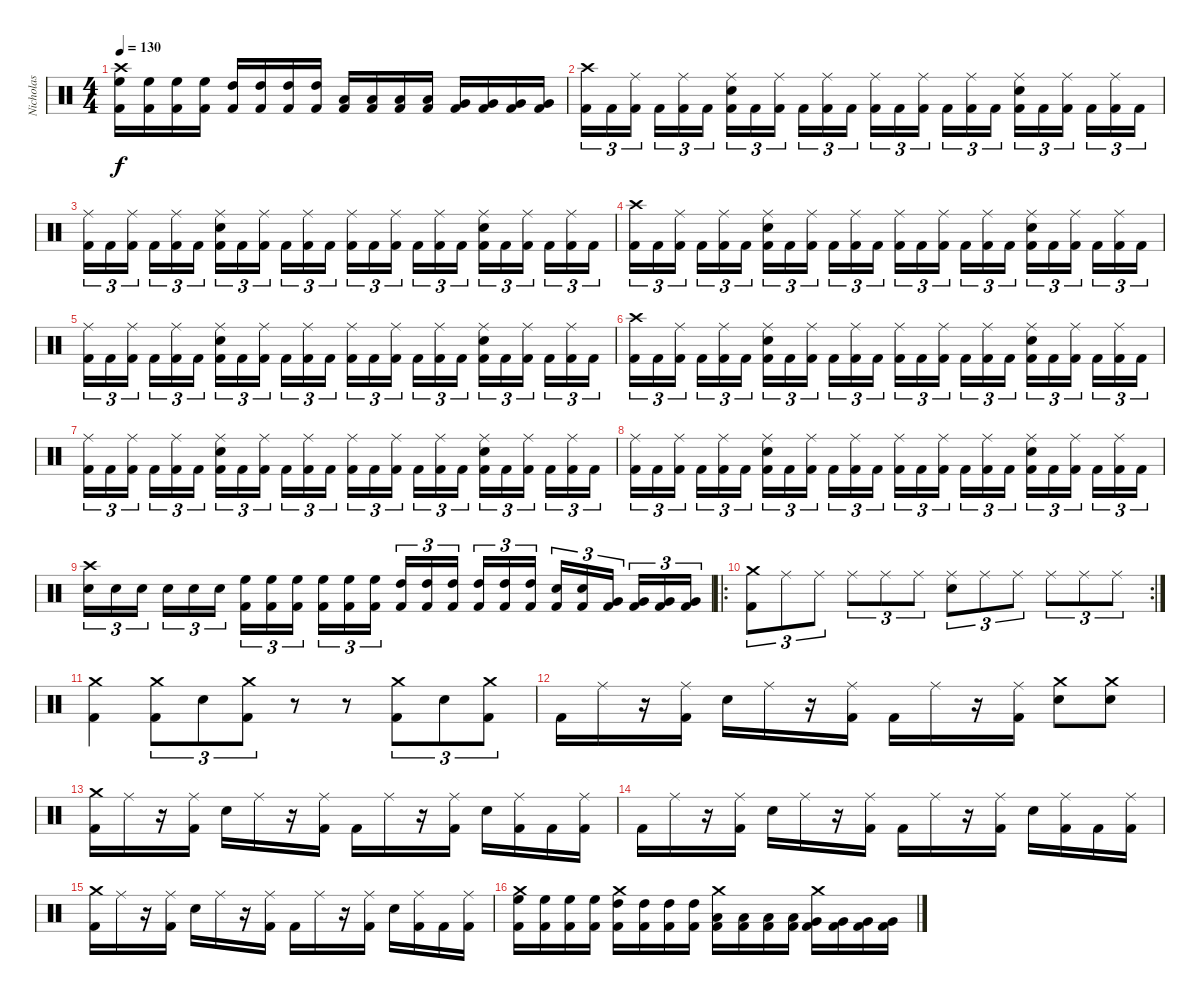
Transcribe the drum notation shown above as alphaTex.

\track ("Nicholas" "Nicholas") {instrument percussion}
\staff {score}
\articulation defaults
\ts (4 4)
\tempo 130
\clef neutral
\ks c
("Crash high (hit)" "High Floor Tom (hit)" "Kick (hit) 2").16{dy f} ("High Floor Tom (hit)" "Kick (hit) 2").16 ("High Floor Tom (hit)" "Kick (hit) 2").16 ("High Floor Tom (hit)" "Kick (hit) 2").16 ("High Tom (hit)" "Kick (hit) 2").16 ("High Tom (hit)" "Kick (hit) 2").16 ("High Tom (hit)" "Kick (hit) 2").16 ("High Tom (hit)" "Kick (hit) 2").16 ("Low Tom (hit)" "Kick (hit) 2").16 ("Low Tom (hit)" "Kick (hit) 2").16 ("Low Tom (hit)" "Kick (hit) 2").16 ("Low Tom (hit)" "Kick (hit) 2").16 ("Very Low Tom (hit)" "Kick (hit) 2").16 ("Very Low Tom (hit)" "Kick (hit) 2").16 ("Very Low Tom (hit)" "Kick (hit) 2").16 ("Very Low Tom (hit)" "Kick (hit) 2").16 |
("Crash high (hit)" "Kick (hit) 2").16{tu (3 2)} "Kick (hit) 2".16{tu (3 2)} ("Ride (middle)" "Kick (hit) 2").16{tu (3 2) beam splitsecondary} "Kick (hit) 2".16{tu (3 2)} ("Ride (middle)" "Kick (hit) 2").16{tu (3 2)} "Kick (hit) 2".16{tu (3 2)} ("Ride (middle)" "Snare (hit) 2" "Kick (hit) 2").16{tu (3 2)} "Kick (hit) 2".16{tu (3 2)} ("Ride (middle)" "Kick (hit) 2").16{tu (3 2) beam splitsecondary} "Kick (hit) 2".16{tu (3 2)} ("Ride (middle)" "Kick (hit) 2").16{tu (3 2)} "Kick (hit) 2".16{tu (3 2)} ("Ride (middle)" "Kick (hit) 2").16{tu (3 2)} "Kick (hit) 2".16{tu (3 2)} ("Ride (middle)" "Kick (hit) 2").16{tu (3 2) beam splitsecondary} "Kick (hit) 2".16{tu (3 2)} ("Ride (middle)" "Kick (hit) 2").16{tu (3 2)} "Kick (hit) 2".16{tu (3 2)} ("Ride (middle)" "Snare (hit) 2" "Kick (hit) 2").16{tu (3 2)} "Kick (hit) 2".16{tu (3 2)} ("Ride (middle)" "Kick (hit) 2").16{tu (3 2) beam splitsecondary} "Kick (hit) 2".16{tu (3 2)} ("Ride (middle)" "Kick (hit) 2").16{tu (3 2)} "Kick (hit) 2".16{tu (3 2)} |
("Ride (middle)" "Kick (hit) 2").16{tu (3 2)} "Kick (hit) 2".16{tu (3 2)} ("Ride (middle)" "Kick (hit) 2").16{tu (3 2) beam splitsecondary} "Kick (hit) 2".16{tu (3 2)} ("Ride (middle)" "Kick (hit) 2").16{tu (3 2)} "Kick (hit) 2".16{tu (3 2)} ("Ride (middle)" "Snare (hit) 2" "Kick (hit) 2").16{tu (3 2)} "Kick (hit) 2".16{tu (3 2)} ("Ride (middle)" "Kick (hit) 2").16{tu (3 2) beam splitsecondary} "Kick (hit) 2".16{tu (3 2)} ("Ride (middle)" "Kick (hit) 2").16{tu (3 2)} "Kick (hit) 2".16{tu (3 2)} ("Ride (middle)" "Kick (hit) 2").16{tu (3 2)} "Kick (hit) 2".16{tu (3 2)} ("Ride (middle)" "Kick (hit) 2").16{tu (3 2) beam splitsecondary} "Kick (hit) 2".16{tu (3 2)} ("Ride (middle)" "Kick (hit) 2").16{tu (3 2)} "Kick (hit) 2".16{tu (3 2)} ("Ride (middle)" "Snare (hit) 2" "Kick (hit) 2").16{tu (3 2)} "Kick (hit) 2".16{tu (3 2)} ("Ride (middle)" "Kick (hit) 2").16{tu (3 2) beam splitsecondary} "Kick (hit) 2".16{tu (3 2)} ("Ride (middle)" "Kick (hit) 2").16{tu (3 2)} "Kick (hit) 2".16{tu (3 2)} |
("Crash high (hit)" "Kick (hit) 2").16{tu (3 2)} "Kick (hit) 2".16{tu (3 2)} ("Ride (middle)" "Kick (hit) 2").16{tu (3 2) beam splitsecondary} "Kick (hit) 2".16{tu (3 2)} ("Ride (middle)" "Kick (hit) 2").16{tu (3 2)} "Kick (hit) 2".16{tu (3 2)} ("Ride (middle)" "Snare (hit) 2" "Kick (hit) 2").16{tu (3 2)} "Kick (hit) 2".16{tu (3 2)} ("Ride (middle)" "Kick (hit) 2").16{tu (3 2) beam splitsecondary} "Kick (hit) 2".16{tu (3 2)} ("Ride (middle)" "Kick (hit) 2").16{tu (3 2)} "Kick (hit) 2".16{tu (3 2)} ("Ride (middle)" "Kick (hit) 2").16{tu (3 2)} "Kick (hit) 2".16{tu (3 2)} ("Ride (middle)" "Kick (hit) 2").16{tu (3 2) beam splitsecondary} "Kick (hit) 2".16{tu (3 2)} ("Ride (middle)" "Kick (hit) 2").16{tu (3 2)} "Kick (hit) 2".16{tu (3 2)} ("Ride (middle)" "Snare (hit) 2" "Kick (hit) 2").16{tu (3 2)} "Kick (hit) 2".16{tu (3 2)} ("Ride (middle)" "Kick (hit) 2").16{tu (3 2) beam splitsecondary} "Kick (hit) 2".16{tu (3 2)} ("Ride (middle)" "Kick (hit) 2").16{tu (3 2)} "Kick (hit) 2".16{tu (3 2)} |
("Ride (middle)" "Kick (hit) 2").16{tu (3 2)} "Kick (hit) 2".16{tu (3 2)} ("Ride (middle)" "Kick (hit) 2").16{tu (3 2) beam splitsecondary} "Kick (hit) 2".16{tu (3 2)} ("Ride (middle)" "Kick (hit) 2").16{tu (3 2)} "Kick (hit) 2".16{tu (3 2)} ("Ride (middle)" "Snare (hit) 2" "Kick (hit) 2").16{tu (3 2)} "Kick (hit) 2".16{tu (3 2)} ("Ride (middle)" "Kick (hit) 2").16{tu (3 2) beam splitsecondary} "Kick (hit) 2".16{tu (3 2)} ("Ride (middle)" "Kick (hit) 2").16{tu (3 2)} "Kick (hit) 2".16{tu (3 2)} ("Ride (middle)" "Kick (hit) 2").16{tu (3 2)} "Kick (hit) 2".16{tu (3 2)} ("Ride (middle)" "Kick (hit) 2").16{tu (3 2) beam splitsecondary} "Kick (hit) 2".16{tu (3 2)} ("Ride (middle)" "Kick (hit) 2").16{tu (3 2)} "Kick (hit) 2".16{tu (3 2)} ("Ride (middle)" "Snare (hit) 2" "Kick (hit) 2").16{tu (3 2)} "Kick (hit) 2".16{tu (3 2)} ("Ride (middle)" "Kick (hit) 2").16{tu (3 2) beam splitsecondary} "Kick (hit) 2".16{tu (3 2)} ("Ride (middle)" "Kick (hit) 2").16{tu (3 2)} "Kick (hit) 2".16{tu (3 2)} |
("Crash high (hit)" "Kick (hit) 2").16{tu (3 2)} "Kick (hit) 2".16{tu (3 2)} ("Ride (middle)" "Kick (hit) 2").16{tu (3 2) beam splitsecondary} "Kick (hit) 2".16{tu (3 2)} ("Ride (middle)" "Kick (hit) 2").16{tu (3 2)} "Kick (hit) 2".16{tu (3 2)} ("Ride (middle)" "Snare (hit) 2" "Kick (hit) 2").16{tu (3 2)} "Kick (hit) 2".16{tu (3 2)} ("Ride (middle)" "Kick (hit) 2").16{tu (3 2) beam splitsecondary} "Kick (hit) 2".16{tu (3 2)} ("Ride (middle)" "Kick (hit) 2").16{tu (3 2)} "Kick (hit) 2".16{tu (3 2)} ("Ride (middle)" "Kick (hit) 2").16{tu (3 2)} "Kick (hit) 2".16{tu (3 2)} ("Ride (middle)" "Kick (hit) 2").16{tu (3 2) beam splitsecondary} "Kick (hit) 2".16{tu (3 2)} ("Ride (middle)" "Kick (hit) 2").16{tu (3 2)} "Kick (hit) 2".16{tu (3 2)} ("Ride (middle)" "Snare (hit) 2" "Kick (hit) 2").16{tu (3 2)} "Kick (hit) 2".16{tu (3 2)} ("Ride (middle)" "Kick (hit) 2").16{tu (3 2) beam splitsecondary} "Kick (hit) 2".16{tu (3 2)} ("Ride (middle)" "Kick (hit) 2").16{tu (3 2)} "Kick (hit) 2".16{tu (3 2)} |
("Ride (middle)" "Kick (hit) 2").16{tu (3 2)} "Kick (hit) 2".16{tu (3 2)} ("Ride (middle)" "Kick (hit) 2").16{tu (3 2) beam splitsecondary} "Kick (hit) 2".16{tu (3 2)} ("Ride (middle)" "Kick (hit) 2").16{tu (3 2)} "Kick (hit) 2".16{tu (3 2)} ("Ride (middle)" "Snare (hit) 2" "Kick (hit) 2").16{tu (3 2)} "Kick (hit) 2".16{tu (3 2)} ("Ride (middle)" "Kick (hit) 2").16{tu (3 2) beam splitsecondary} "Kick (hit) 2".16{tu (3 2)} ("Ride (middle)" "Kick (hit) 2").16{tu (3 2)} "Kick (hit) 2".16{tu (3 2)} ("Ride (middle)" "Kick (hit) 2").16{tu (3 2)} "Kick (hit) 2".16{tu (3 2)} ("Ride (middle)" "Kick (hit) 2").16{tu (3 2) beam splitsecondary} "Kick (hit) 2".16{tu (3 2)} ("Ride (middle)" "Kick (hit) 2").16{tu (3 2)} "Kick (hit) 2".16{tu (3 2)} ("Ride (middle)" "Snare (hit) 2" "Kick (hit) 2").16{tu (3 2)} "Kick (hit) 2".16{tu (3 2)} ("Ride (middle)" "Kick (hit) 2").16{tu (3 2) beam splitsecondary} "Kick (hit) 2".16{tu (3 2)} ("Ride (middle)" "Kick (hit) 2").16{tu (3 2)} "Kick (hit) 2".16{tu (3 2)} |
("Ride (middle)" "Kick (hit) 2").16{tu (3 2)} "Kick (hit) 2".16{tu (3 2)} ("Ride (middle)" "Kick (hit) 2").16{tu (3 2) beam splitsecondary} "Kick (hit) 2".16{tu (3 2)} ("Ride (middle)" "Kick (hit) 2").16{tu (3 2)} "Kick (hit) 2".16{tu (3 2)} ("Ride (middle)" "Snare (hit) 2" "Kick (hit) 2").16{tu (3 2)} "Kick (hit) 2".16{tu (3 2)} ("Ride (middle)" "Kick (hit) 2").16{tu (3 2) beam splitsecondary} "Kick (hit) 2".16{tu (3 2)} ("Ride (middle)" "Kick (hit) 2").16{tu (3 2)} "Kick (hit) 2".16{tu (3 2)} ("Ride (middle)" "Kick (hit) 2").16{tu (3 2)} "Kick (hit) 2".16{tu (3 2)} ("Ride (middle)" "Kick (hit) 2").16{tu (3 2) beam splitsecondary} "Kick (hit) 2".16{tu (3 2)} ("Ride (middle)" "Kick (hit) 2").16{tu (3 2)} "Kick (hit) 2".16{tu (3 2)} ("Ride (middle)" "Snare (hit) 2" "Kick (hit) 2").16{tu (3 2)} "Kick (hit) 2".16{tu (3 2)} ("Ride (middle)" "Kick (hit) 2").16{tu (3 2) beam splitsecondary} "Kick (hit) 2".16{tu (3 2)} ("Ride (middle)" "Kick (hit) 2").16{tu (3 2)} "Kick (hit) 2".16{tu (3 2)} |
("Crash high (hit)" "Snare (hit) 2").16{tu (3 2)} "Snare (hit) 2".16{tu (3 2)} "Snare (hit) 2".16{tu (3 2) beam splitsecondary} "Snare (hit) 2".16{tu (3 2)} "Snare (hit) 2".16{tu (3 2)} "Snare (hit) 2".16{tu (3 2)} ("High Floor Tom (hit)" "Kick (hit) 2").16{tu (3 2)} ("High Floor Tom (hit)" "Kick (hit) 2").16{tu (3 2)} ("High Floor Tom (hit)" "Kick (hit) 2").16{tu (3 2) beam splitsecondary} ("High Floor Tom (hit)" "Kick (hit) 2").16{tu (3 2)} ("High Floor Tom (hit)" "Kick (hit) 2").16{tu (3 2)} ("High Floor Tom (hit)" "Kick (hit) 2").16{tu (3 2)} ("High Tom (hit)" "Kick (hit) 2").16{tu (3 2)} ("High Tom (hit)" "Kick (hit) 2").16{tu (3 2)} ("High Tom (hit)" "Kick (hit) 2").16{tu (3 2) beam splitsecondary} ("High Tom (hit)" "Kick (hit) 2").16{tu (3 2)} ("High Tom (hit)" "Kick (hit) 2").16{tu (3 2)} ("High Tom (hit)" "Kick (hit) 2").16{tu (3 2)} ("Snare (hit) 2" "Kick (hit) 2").16{tu (3 2)} ("Snare (hit) 2" "Kick (hit) 2").16{tu (3 2)} ("Very Low Tom (hit)" "Kick (hit) 2").16{tu (3 2) beam splitsecondary} ("Very Low Tom (hit)" "Kick (hit) 2").16{tu (3 2)} ("Very Low Tom (hit)" "Kick (hit) 2").16{tu (3 2)} ("Very Low Tom (hit)" "Kick (hit) 2").16{tu (3 2)} |
\ro
\rc 2
("Crash medium (hit)" "Kick (hit) 2").8{tu (3 2)} "Ride (middle)".8{tu (3 2)} "Ride (middle)".8{tu (3 2)} "Ride (middle)".8{tu (3 2)} "Ride (middle)".8{tu (3 2)} "Ride (middle)".8{tu (3 2)} ("Ride (middle)" "Snare (hit) 2").8{tu (3 2)} "Ride (middle)".8{tu (3 2)} "Ride (middle)".8{tu (3 2)} "Ride (middle)".8{tu (3 2)} "Ride (middle)".8{tu (3 2)} "Ride (middle)".8{tu (3 2)} |
("Crash medium (hit)" "Kick (hit) 2").4 ("Crash medium (hit)" "Kick (hit) 2").8{tu (3 2)} "Snare (hit) 2".8{tu (3 2)} ("Crash medium (hit)" "Kick (hit) 2").8{tu (3 2)} r.8 r.8 ("Crash medium (hit)" "Kick (hit) 2").8{tu (3 2)} "Snare (hit) 2".8{tu (3 2)} ("Crash medium (hit)" "Kick (hit) 2").8{tu (3 2)} |
"Kick (hit) 2".16 "Ride (middle)".16 r.16 ("Ride (middle)" "Kick (hit) 2").16 "Snare (hit) 2".16 "Ride (middle)".16 r.16 ("Ride (middle)" "Kick (hit) 2").16 "Kick (hit) 2".16 "Ride (middle)".16 r.16 ("Ride (middle)" "Kick (hit) 2").16 ("Crash medium (hit)" "Snare (hit) 2").8 ("Crash medium (hit)" "Snare (hit) 2").8 |
("Crash medium (hit)" "Kick (hit) 2").16 "Ride (middle)".16 r.16 ("Ride (middle)" "Kick (hit) 2").16 "Snare (hit) 2".16 "Ride (middle)".16 r.16 ("Ride (middle)" "Kick (hit) 2").16 "Kick (hit) 2".16 "Ride (middle)".16 r.16 ("Ride (middle)" "Kick (hit) 2").16 "Snare (hit) 2".16 ("Ride (middle)" "Kick (hit) 2").16 "Kick (hit) 2".16 ("Ride (middle)" "Kick (hit) 2").16 |
"Kick (hit) 2".16 "Ride (middle)".16 r.16 ("Ride (middle)" "Kick (hit) 2").16 "Snare (hit) 2".16 "Ride (middle)".16 r.16 ("Ride (middle)" "Kick (hit) 2").16 "Kick (hit) 2".16 "Ride (middle)".16 r.16 ("Ride (middle)" "Kick (hit) 2").16 "Snare (hit) 2".16 ("Ride (middle)" "Kick (hit) 2").16 "Kick (hit) 2".16 ("Ride (middle)" "Kick (hit) 2").16 |
("Crash medium (hit)" "Kick (hit) 2").16 "Ride (middle)".16 r.16 ("Ride (middle)" "Kick (hit) 2").16 "Snare (hit) 2".16 "Ride (middle)".16 r.16 ("Ride (middle)" "Kick (hit) 2").16 "Kick (hit) 2".16 "Ride (middle)".16 r.16 ("Ride (middle)" "Kick (hit) 2").16 "Snare (hit) 2".16 ("Ride (middle)" "Kick (hit) 2").16 "Kick (hit) 2".16 ("Ride (middle)" "Kick (hit) 2").16 |
("Crash medium (hit)" "High Floor Tom (hit)" "Kick (hit) 2").16 ("High Floor Tom (hit)" "Kick (hit) 2").16 ("High Floor Tom (hit)" "Kick (hit) 2").16 ("High Floor Tom (hit)" "Kick (hit) 2").16 ("Crash medium (hit)" "High Tom (hit)" "Kick (hit) 2").16 ("High Tom (hit)" "Kick (hit) 2").16 ("High Tom (hit)" "Kick (hit) 2").16 ("High Tom (hit)" "Kick (hit) 2").16 ("Crash medium (hit)" "Low Tom (hit)" "Kick (hit) 2").16 ("Low Tom (hit)" "Kick (hit) 2").16 ("Low Tom (hit)" "Kick (hit) 2").16 ("Low Tom (hit)" "Kick (hit) 2").16 ("Crash medium (hit)" "Very Low Tom (hit)" "Kick (hit) 2").16 ("Very Low Tom (hit)" "Kick (hit) 2").16 ("Very Low Tom (hit)" "Kick (hit) 2").16 ("Very Low Tom (hit)" "Kick (hit) 2").16
